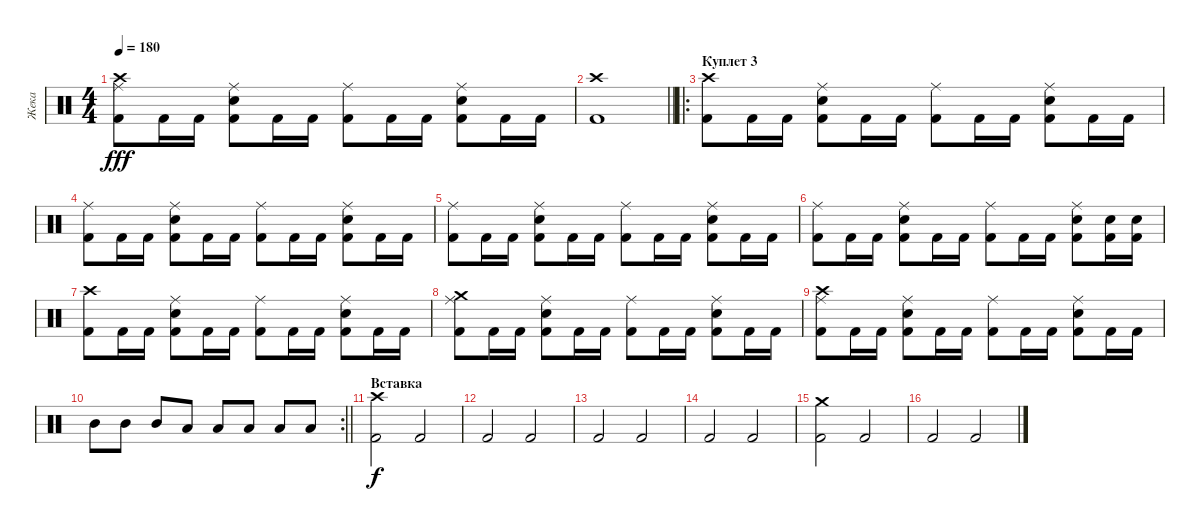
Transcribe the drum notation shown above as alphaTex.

\track ("Жека" "Жека") {instrument percussion}
\staff {score}
\articulation defaults
\ts (4 4)
\tempo 180
\clef neutral
\ks c
("Ride (middle)" "Kick (hit) 2" "Crash high (hit)").8{dy fff} "Kick (hit) 2".16 "Kick (hit) 2".16 ("Ride (middle)" "Kick (hit) 2" "Snare (hit) 2").8 "Kick (hit) 2".16 "Kick (hit) 2".16 ("Ride (middle)" "Kick (hit) 2").8 "Kick (hit) 2".16 "Kick (hit) 2".16 ("Ride (middle)" "Kick (hit) 2" "Snare (hit) 2").8 "Kick (hit) 2".16 "Kick (hit) 2".16 |
\barLineRight lightlight
("Kick (hit) 2" "Crash high (hit)").1 |
\ro
\section ("" "Куплет 3")
("Kick (hit) 2" "Crash high (hit)").8 "Kick (hit) 2".16 "Kick (hit) 2".16 ("Ride (middle)" "Kick (hit) 2" "Snare (hit) 2").8 "Kick (hit) 2".16 "Kick (hit) 2".16 ("Ride (middle)" "Kick (hit) 2").8 "Kick (hit) 2".16 "Kick (hit) 2".16 ("Ride (middle)" "Kick (hit) 2" "Snare (hit) 2").8 "Kick (hit) 2".16 "Kick (hit) 2".16 |
("Ride (middle)" "Kick (hit) 2").8 "Kick (hit) 2".16 "Kick (hit) 2".16 ("Ride (middle)" "Kick (hit) 2" "Snare (hit) 2").8 "Kick (hit) 2".16 "Kick (hit) 2".16 ("Ride (middle)" "Kick (hit) 2").8 "Kick (hit) 2".16 "Kick (hit) 2".16 ("Ride (middle)" "Kick (hit) 2" "Snare (hit) 2").8 "Kick (hit) 2".16 "Kick (hit) 2".16 |
("Ride (middle)" "Kick (hit) 2").8 "Kick (hit) 2".16 "Kick (hit) 2".16 ("Ride (middle)" "Kick (hit) 2" "Snare (hit) 2").8 "Kick (hit) 2".16 "Kick (hit) 2".16 ("Ride (middle)" "Kick (hit) 2").8 "Kick (hit) 2".16 "Kick (hit) 2".16 ("Ride (middle)" "Kick (hit) 2" "Snare (hit) 2").8 "Kick (hit) 2".16 "Kick (hit) 2".16 |
("Ride (middle)" "Kick (hit) 2").8 "Kick (hit) 2".16 "Kick (hit) 2".16 ("Ride (middle)" "Kick (hit) 2" "Snare (hit) 2").8 "Kick (hit) 2".16 "Kick (hit) 2".16 ("Ride (middle)" "Kick (hit) 2").8 "Kick (hit) 2".16 "Kick (hit) 2".16 ("Ride (middle)" "Kick (hit) 2" "Snare (hit) 2").8 ("Kick (hit) 2" "Snare (hit) 2").16 ("Kick (hit) 2" "Snare (hit) 2").16 |
("Kick (hit) 2" "Crash high (hit)").8 "Kick (hit) 2".16 "Kick (hit) 2".16 ("Ride (middle)" "Kick (hit) 2" "Snare (hit) 2").8 "Kick (hit) 2".16 "Kick (hit) 2".16 ("Ride (middle)" "Kick (hit) 2").8 "Kick (hit) 2".16 "Kick (hit) 2".16 ("Ride (middle)" "Kick (hit) 2" "Snare (hit) 2").8 "Kick (hit) 2".16 "Kick (hit) 2".16 |
("Ride (middle)" "Kick (hit) 2" "Crash medium (hit)").8 "Kick (hit) 2".16 "Kick (hit) 2".16 ("Ride (middle)" "Kick (hit) 2" "Snare (hit) 2").8 "Kick (hit) 2".16 "Kick (hit) 2".16 ("Ride (middle)" "Kick (hit) 2").8 "Kick (hit) 2".16 "Kick (hit) 2".16 ("Ride (middle)" "Kick (hit) 2" "Snare (hit) 2").8 "Kick (hit) 2".16 "Kick (hit) 2".16 |
("Ride (middle)" "Kick (hit) 2" "Crash high (hit)").8 "Kick (hit) 2".16 "Kick (hit) 2".16 ("Ride (middle)" "Kick (hit) 2" "Snare (hit) 2").8 "Kick (hit) 2".16 "Kick (hit) 2".16 ("Ride (middle)" "Kick (hit) 2").8 "Kick (hit) 2".16 "Kick (hit) 2".16 ("Ride (middle)" "Kick (hit) 2" "Snare (hit) 2").8 "Kick (hit) 2".16 "Kick (hit) 2".16 |
\rc 2
\barLineRight lightlight "Mid Tom (hit)".8 "Mid Tom (hit)".8 "Mid Tom (hit)".8 "Low Tom (hit)".8 "Low Tom (hit)".8 "Low Floor Tom (hit)".8 "Low Floor Tom (hit)".8 "Low Floor Tom (hit)".8
|
\section ("" "Вставка")
("Crash high (hit)" "Kick (hit) 2").2{dy f} "Kick (hit) 2".2 |
"Kick (hit) 2".2 "Kick (hit) 2".2 |
"Kick (hit) 2".2 "Kick (hit) 2".2 |
"Kick (hit) 2".2 "Kick (hit) 2".2 |
("Crash medium (hit)" "Kick (hit) 2").2 "Kick (hit) 2".2 |
"Kick (hit) 2".2 "Kick (hit) 2".2
